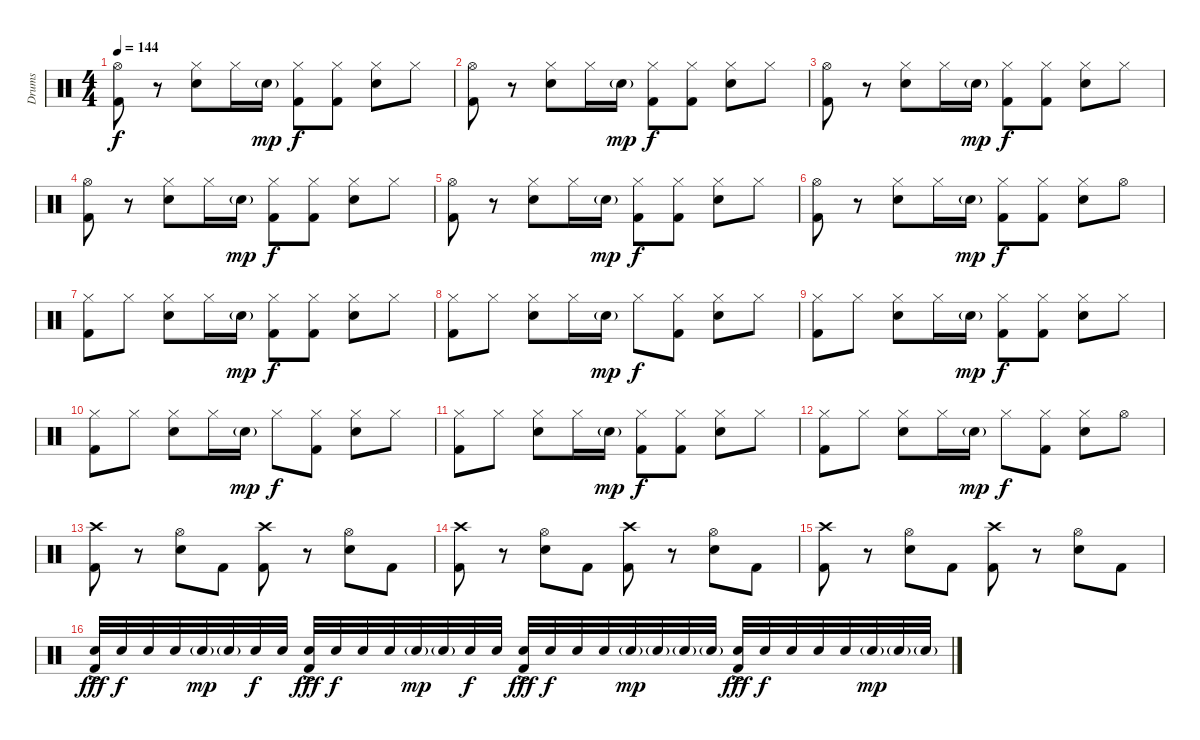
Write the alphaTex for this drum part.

\track ("Drums" "Drums") {instrument percussion}
\staff {score}
\articulation defaults
\ts (4 4)
\tempo 144
\clef neutral
\ks c
("Hi-Hat (open)" "Kick (hit) 2").8{dy f} r.8 ("Hi-Hat (closed)" "Snare (hit) 2").8 "Hi-Hat (closed)".16 "Snare (hit) 2"{g}.16{dy mp} ("Hi-Hat (closed)" "Kick (hit) 2").8{dy f} ("Hi-Hat (closed)" "Kick (hit) 2").8 ("Hi-Hat (closed)" "Snare (hit) 2").8 "Hi-Hat (closed)".8 |
("Hi-Hat (open)" "Kick (hit) 2").8 r.8 ("Hi-Hat (closed)" "Snare (hit) 2").8 "Hi-Hat (closed)".16 "Snare (hit) 2"{g}.16{dy mp} ("Hi-Hat (closed)" "Kick (hit) 2").8{dy f} ("Hi-Hat (closed)" "Kick (hit) 2").8 ("Hi-Hat (closed)" "Snare (hit) 2").8 "Hi-Hat (closed)".8 |
("Hi-Hat (open)" "Kick (hit) 2").8 r.8 ("Hi-Hat (closed)" "Snare (hit) 2").8 "Hi-Hat (closed)".16 "Snare (hit) 2"{g}.16{dy mp} ("Hi-Hat (closed)" "Kick (hit) 2").8{dy f} ("Hi-Hat (closed)" "Kick (hit) 2").8 ("Hi-Hat (closed)" "Snare (hit) 2").8 "Hi-Hat (closed)".8 |
("Hi-Hat (open)" "Kick (hit) 2").8 r.8 ("Hi-Hat (closed)" "Snare (hit) 2").8 "Hi-Hat (closed)".16 "Snare (hit) 2"{g}.16{dy mp} ("Hi-Hat (closed)" "Kick (hit) 2").8{dy f} ("Hi-Hat (closed)" "Kick (hit) 2").8 ("Hi-Hat (closed)" "Snare (hit) 2").8 "Hi-Hat (closed)".8 |
("Hi-Hat (open)" "Kick (hit) 2").8 r.8 ("Hi-Hat (closed)" "Snare (hit) 2").8 "Hi-Hat (closed)".16 "Snare (hit) 2"{g}.16{dy mp} ("Hi-Hat (closed)" "Kick (hit) 2").8{dy f} ("Hi-Hat (closed)" "Kick (hit) 2").8 ("Hi-Hat (closed)" "Snare (hit) 2").8 "Hi-Hat (closed)".8 |
("Hi-Hat (open)" "Kick (hit) 2").8 r.8 ("Hi-Hat (closed)" "Snare (hit) 2").8 "Hi-Hat (closed)".16 "Snare (hit) 2"{g}.16{dy mp} ("Hi-Hat (closed)" "Kick (hit) 2").8{dy f} ("Hi-Hat (closed)" "Kick (hit) 2").8 ("Hi-Hat (closed)" "Snare (hit) 2").8 "Hi-Hat (open)".8 |
("Hi-Hat (closed)" "Kick (hit) 2").8 "Hi-Hat (closed)".8 ("Hi-Hat (closed)" "Snare (hit) 2").8 "Hi-Hat (closed)".16 "Snare (hit) 2"{g}.16{dy mp} ("Hi-Hat (closed)" "Kick (hit) 2").8{dy f} ("Hi-Hat (closed)" "Kick (hit) 2").8 ("Hi-Hat (closed)" "Snare (hit) 2").8 "Hi-Hat (closed)".8 |
("Hi-Hat (closed)" "Kick (hit) 2").8 "Hi-Hat (closed)".8 ("Hi-Hat (closed)" "Snare (hit) 2").8 "Hi-Hat (closed)".16 "Snare (hit) 2"{g}.16{dy mp} "Hi-Hat (closed)".8{dy f} ("Hi-Hat (closed)" "Kick (hit) 2").8 ("Hi-Hat (closed)" "Snare (hit) 2").8 "Hi-Hat (closed)".8 |
("Hi-Hat (closed)" "Kick (hit) 2").8 "Hi-Hat (closed)".8 ("Hi-Hat (closed)" "Snare (hit) 2").8 "Hi-Hat (closed)".16 "Snare (hit) 2"{g}.16{dy mp} ("Hi-Hat (closed)" "Kick (hit) 2").8{dy f} ("Hi-Hat (closed)" "Kick (hit) 2").8 ("Hi-Hat (closed)" "Snare (hit) 2").8 "Hi-Hat (closed)".8 |
("Hi-Hat (closed)" "Kick (hit) 2").8 "Hi-Hat (closed)".8 ("Hi-Hat (closed)" "Snare (hit) 2").8 "Hi-Hat (closed)".16 "Snare (hit) 2"{g}.16{dy mp} "Hi-Hat (closed)".8{dy f} ("Hi-Hat (closed)" "Kick (hit) 2").8 ("Hi-Hat (closed)" "Snare (hit) 2").8 "Hi-Hat (closed)".8 |
("Hi-Hat (closed)" "Kick (hit) 2").8 "Hi-Hat (closed)".8 ("Hi-Hat (closed)" "Snare (hit) 2").8 "Hi-Hat (closed)".16 "Snare (hit) 2"{g}.16{dy mp} ("Hi-Hat (closed)" "Kick (hit) 2").8{dy f} ("Hi-Hat (closed)" "Kick (hit) 2").8 ("Hi-Hat (closed)" "Snare (hit) 2").8 "Hi-Hat (closed)".8 |
("Hi-Hat (closed)" "Kick (hit) 2").8 "Hi-Hat (closed)".8 ("Hi-Hat (closed)" "Snare (hit) 2").8 "Hi-Hat (closed)".16 "Snare (hit) 2"{g}.16{dy mp} "Hi-Hat (closed)".8{dy f} ("Hi-Hat (closed)" "Kick (hit) 2").8 ("Hi-Hat (closed)" "Snare (hit) 2").8 "Hi-Hat (open)".8 |
("Crash high (hit)" "Kick (hit) 2").8 r.8 ("Hi-Hat (open)" "Snare (hit) 2").8 "Kick (hit) 2".8 ("Crash high (hit)" "Kick (hit) 2").8 r.8 ("Hi-Hat (open)" "Snare (hit) 2").8 "Kick (hit) 2".8 |
("Crash high (hit)" "Kick (hit) 2").8 r.8 ("Hi-Hat (open)" "Snare (hit) 2").8 "Kick (hit) 2".8 ("Crash high (hit)" "Kick (hit) 2").8 r.8 ("Hi-Hat (open)" "Snare (hit) 2").8 "Kick (hit) 2".8 |
("Crash high (hit)" "Kick (hit) 2").8 r.8 ("Hi-Hat (open)" "Snare (hit) 2").8 "Kick (hit) 2".8 ("Crash high (hit)" "Kick (hit) 2").8 r.8 ("Hi-Hat (open)" "Snare (hit) 2").8 "Kick (hit) 2".8 |
("Snare (hit) 2"{ac} "Kick (hit) 2").32{dy fff} "Snare (hit) 2".32{dy f} "Snare (hit) 2".32 "Snare (hit) 2".32 "Snare (hit) 2"{g}.32{dy mp} "Snare (hit) 2"{g}.32 "Snare (hit) 2".32{dy f} "Snare (hit) 2".32 ("Snare (hit) 2"{ac} "Kick (hit) 2").32{dy fff} "Snare (hit) 2".32{dy f} "Snare (hit) 2".32 "Snare (hit) 2".32 "Snare (hit) 2"{g}.32{dy mp} "Snare (hit) 2"{g}.32 "Snare (hit) 2".32{dy f} "Snare (hit) 2".32 ("Snare (hit) 2"{ac} "Kick (hit) 2").32{dy fff} "Snare (hit) 2".32{dy f} "Snare (hit) 2".32 "Snare (hit) 2".32 "Snare (hit) 2"{g}.32{dy mp} "Snare (hit) 2"{g}.32 "Snare (hit) 2"{g}.32 "Snare (hit) 2"{g}.32 ("Snare (hit) 2"{ac} "Kick (hit) 2").32{dy fff} "Snare (hit) 2".32{dy f} "Snare (hit) 2".32 "Snare (hit) 2".32 "Snare (hit) 2".32 "Snare (hit) 2"{g}.32{dy mp} "Snare (hit) 2"{g}.32 "Snare (hit) 2"{g}.32
